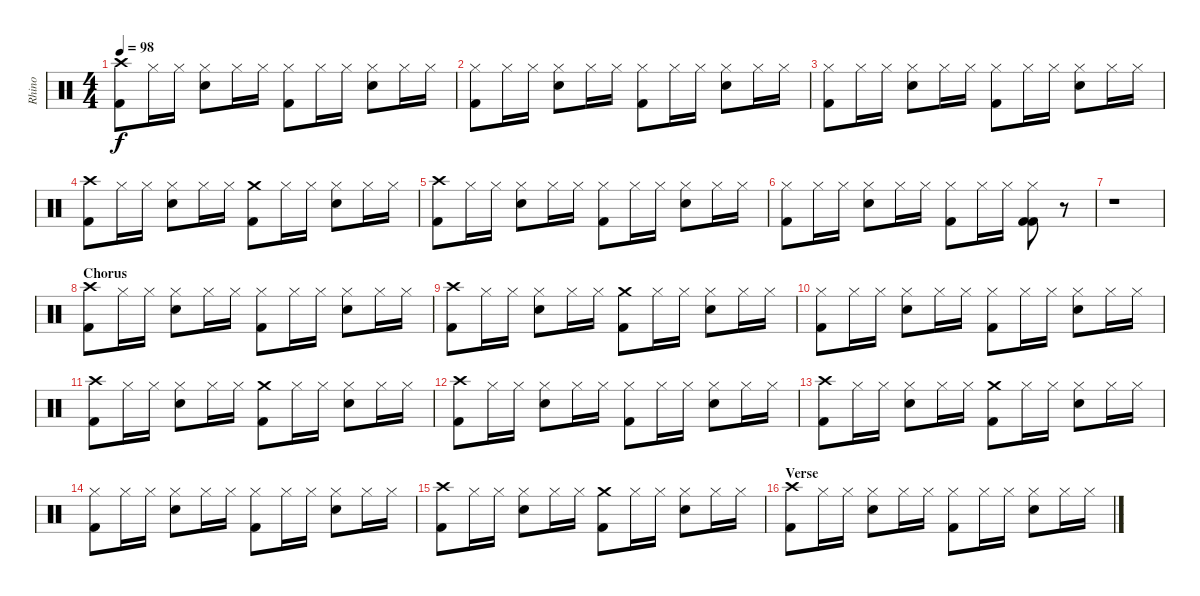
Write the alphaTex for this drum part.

\track ("Rhino" "Rhino") {instrument percussion}
\staff {score}
\articulation defaults
\ts (4 4)
\tempo 98
\clef neutral
\ks c
("Crash high (hit)" "Kick (hit) 2").8{dy f} "Hi-Hat (closed)".16 "Hi-Hat (closed)".16 ("Hi-Hat (closed)" "Snare (hit) 2").8 "Hi-Hat (closed)".16 "Hi-Hat (closed)".16 ("Hi-Hat (closed)" "Kick (hit) 2").8 "Hi-Hat (closed)".16 "Hi-Hat (closed)".16 ("Hi-Hat (closed)" "Snare (hit) 2").8 "Hi-Hat (closed)".16 "Hi-Hat (closed)".16 |
("Hi-Hat (closed)" "Kick (hit) 2").8 "Hi-Hat (closed)".16 "Hi-Hat (closed)".16 ("Hi-Hat (closed)" "Snare (hit) 2").8 "Hi-Hat (closed)".16 "Hi-Hat (closed)".16 ("Hi-Hat (closed)" "Kick (hit) 2").8 "Hi-Hat (closed)".16 "Hi-Hat (closed)".16 ("Hi-Hat (closed)" "Snare (hit) 2").8 "Hi-Hat (closed)".16 "Hi-Hat (closed)".16 |
("Hi-Hat (closed)" "Kick (hit) 2").8 "Hi-Hat (closed)".16 "Hi-Hat (closed)".16 ("Hi-Hat (closed)" "Snare (hit) 2").8 "Hi-Hat (closed)".16 "Hi-Hat (closed)".16 ("Hi-Hat (closed)" "Kick (hit) 2").8 "Hi-Hat (closed)".16 "Hi-Hat (closed)".16 ("Hi-Hat (closed)" "Snare (hit) 2").8 "Hi-Hat (closed)".16 "Hi-Hat (closed)".16 |
("Crash high (hit)" "Kick (hit) 2").8 "Hi-Hat (closed)".16 "Hi-Hat (closed)".16 ("Hi-Hat (closed)" "Snare (hit) 2").8 "Hi-Hat (closed)".16 "Hi-Hat (closed)".16 ("Crash medium (hit)" "Kick (hit) 2").8 "Hi-Hat (closed)".16 "Hi-Hat (closed)".16 ("Hi-Hat (closed)" "Snare (hit) 2").8 "Hi-Hat (closed)".16 "Hi-Hat (closed)".16 |
("Crash high (hit)" "Kick (hit) 2").8 "Hi-Hat (closed)".16 "Hi-Hat (closed)".16 ("Hi-Hat (closed)" "Snare (hit) 2").8 "Hi-Hat (closed)".16 "Hi-Hat (closed)".16 ("Hi-Hat (closed)" "Kick (hit) 2").8 "Hi-Hat (closed)".16 "Hi-Hat (closed)".16 ("Hi-Hat (closed)" "Snare (hit) 2").8 "Hi-Hat (closed)".16 "Hi-Hat (closed)".16 |
("Hi-Hat (closed)" "Kick (hit) 2").8 "Hi-Hat (closed)".16 "Hi-Hat (closed)".16 ("Hi-Hat (closed)" "Snare (hit) 2").8 "Hi-Hat (closed)".16 "Hi-Hat (closed)".16 ("Hi-Hat (closed)" "Kick (hit) 2").8 "Hi-Hat (closed)".16 "Hi-Hat (closed)".16 ("Hi-Hat (closed)" "Kick (hit) 2" "Kick (hit) 2").8 r.8 |
r.1 |
\section ("" "Chorus")
("Crash high (hit)" "Kick (hit) 2").8 "Hi-Hat (closed)".16 "Hi-Hat (closed)".16 ("Hi-Hat (closed)" "Snare (hit) 2").8 "Hi-Hat (closed)".16 "Hi-Hat (closed)".16 ("Hi-Hat (closed)" "Kick (hit) 2").8 "Hi-Hat (closed)".16 "Hi-Hat (closed)".16 ("Hi-Hat (closed)" "Snare (hit) 2").8 "Hi-Hat (closed)".16 "Hi-Hat (closed)".16 |
("Crash high (hit)" "Kick (hit) 2").8 "Hi-Hat (closed)".16 "Hi-Hat (closed)".16 ("Hi-Hat (closed)" "Snare (hit) 2").8 "Hi-Hat (closed)".16 "Hi-Hat (closed)".16 ("Crash medium (hit)" "Kick (hit) 2").8 "Hi-Hat (closed)".16 "Hi-Hat (closed)".16 ("Hi-Hat (closed)" "Snare (hit) 2").8 "Hi-Hat (closed)".16 "Hi-Hat (closed)".16 |
("Hi-Hat (closed)" "Kick (hit) 2").8 "Hi-Hat (closed)".16 "Hi-Hat (closed)".16 ("Hi-Hat (closed)" "Snare (hit) 2").8 "Hi-Hat (closed)".16 "Hi-Hat (closed)".16 ("Hi-Hat (closed)" "Kick (hit) 2").8 "Hi-Hat (closed)".16 "Hi-Hat (closed)".16 ("Hi-Hat (closed)" "Snare (hit) 2").8 "Hi-Hat (closed)".16 "Hi-Hat (closed)".16 |
("Crash high (hit)" "Kick (hit) 2").8 "Hi-Hat (closed)".16 "Hi-Hat (closed)".16 ("Hi-Hat (closed)" "Snare (hit) 2").8 "Hi-Hat (closed)".16 "Hi-Hat (closed)".16 ("Crash medium (hit)" "Kick (hit) 2").8 "Hi-Hat (closed)".16 "Hi-Hat (closed)".16 ("Hi-Hat (closed)" "Snare (hit) 2").8 "Hi-Hat (closed)".16 "Hi-Hat (closed)".16 |
("Crash high (hit)" "Kick (hit) 2").8 "Hi-Hat (closed)".16 "Hi-Hat (closed)".16 ("Hi-Hat (closed)" "Snare (hit) 2").8 "Hi-Hat (closed)".16 "Hi-Hat (closed)".16 ("Hi-Hat (closed)" "Kick (hit) 2").8 "Hi-Hat (closed)".16 "Hi-Hat (closed)".16 ("Hi-Hat (closed)" "Snare (hit) 2").8 "Hi-Hat (closed)".16 "Hi-Hat (closed)".16 |
("Crash high (hit)" "Kick (hit) 2").8 "Hi-Hat (closed)".16 "Hi-Hat (closed)".16 ("Hi-Hat (closed)" "Snare (hit) 2").8 "Hi-Hat (closed)".16 "Hi-Hat (closed)".16 ("Crash medium (hit)" "Kick (hit) 2").8 "Hi-Hat (closed)".16 "Hi-Hat (closed)".16 ("Hi-Hat (closed)" "Snare (hit) 2").8 "Hi-Hat (closed)".16 "Hi-Hat (closed)".16 |
("Hi-Hat (closed)" "Kick (hit) 2").8 "Hi-Hat (closed)".16 "Hi-Hat (closed)".16 ("Hi-Hat (closed)" "Snare (hit) 2").8 "Hi-Hat (closed)".16 "Hi-Hat (closed)".16 ("Hi-Hat (closed)" "Kick (hit) 2").8 "Hi-Hat (closed)".16 "Hi-Hat (closed)".16 ("Hi-Hat (closed)" "Snare (hit) 2").8 "Hi-Hat (closed)".16 "Hi-Hat (closed)".16 |
("Crash high (hit)" "Kick (hit) 2").8 "Hi-Hat (closed)".16 "Hi-Hat (closed)".16 ("Hi-Hat (closed)" "Snare (hit) 2").8 "Hi-Hat (closed)".16 "Hi-Hat (closed)".16 ("Crash medium (hit)" "Kick (hit) 2").8 "Hi-Hat (closed)".16 "Hi-Hat (closed)".16 ("Hi-Hat (closed)" "Snare (hit) 2").8 "Hi-Hat (closed)".16 "Hi-Hat (closed)".16 |
\section ("" "Verse")
("Crash high (hit)" "Kick (hit) 2").8 "Hi-Hat (closed)".16 "Hi-Hat (closed)".16 ("Hi-Hat (closed)" "Snare (hit) 2").8 "Hi-Hat (closed)".16 "Hi-Hat (closed)".16 ("Hi-Hat (closed)" "Kick (hit) 2").8 "Hi-Hat (closed)".16 "Hi-Hat (closed)".16 ("Hi-Hat (closed)" "Snare (hit) 2").8 "Hi-Hat (closed)".16 "Hi-Hat (closed)".16
